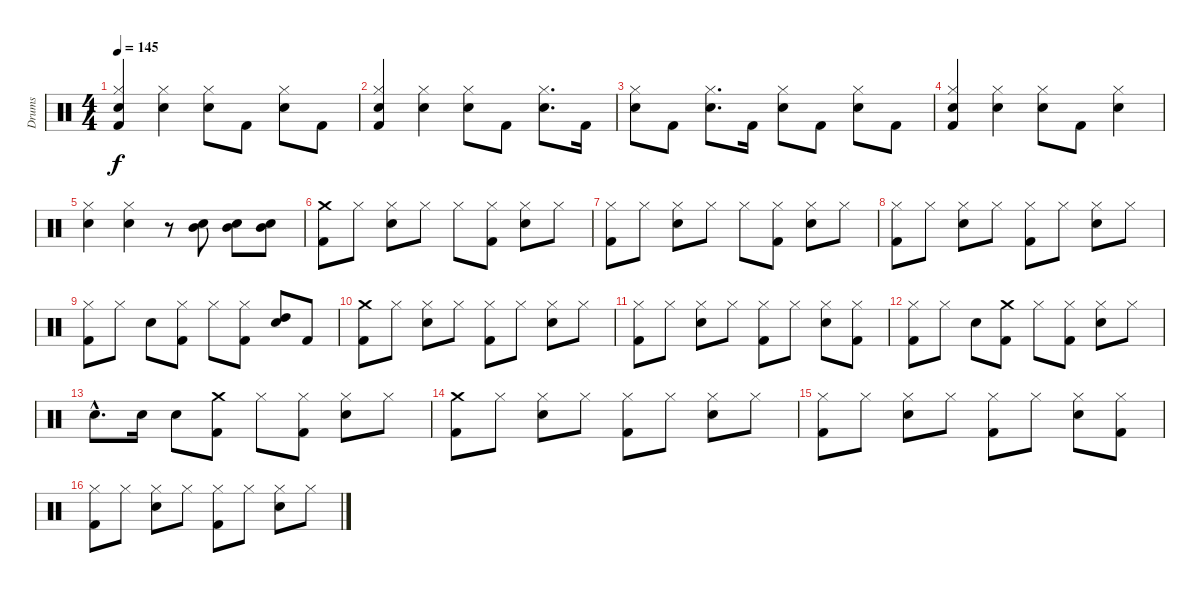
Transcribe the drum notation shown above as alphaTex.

\track ("Drums" "Drums") {instrument percussion}
\staff {score}
\articulation defaults
\ts (4 4)
\tempo 145
\clef neutral
\ks c
("Kick (hit) 2" "Hi-Hat (closed)" "Snare (hit) 2").4{dy f} ("Hi-Hat (closed)" "Snare (hit) 2").4 ("Hi-Hat (closed)" "Snare (hit) 2").8 "Kick (hit) 2".8 ("Hi-Hat (closed)" "Snare (hit) 2").8 "Kick (hit) 2".8 |
("Hi-Hat (closed)" "Snare (hit) 2" "Kick (hit) 2").4 ("Hi-Hat (closed)" "Snare (hit) 2").4 ("Hi-Hat (closed)" "Snare (hit) 2").8 "Kick (hit) 2".8 ("Hi-Hat (closed)" "Snare (hit) 2").8{d} "Kick (hit) 2".16 |
("Hi-Hat (closed)" "Snare (hit) 2").8 "Kick (hit) 2".8 ("Hi-Hat (closed)" "Snare (hit) 2").8{d} "Kick (hit) 2".16 ("Hi-Hat (closed)" "Snare (hit) 2").8 "Kick (hit) 2".8 ("Hi-Hat (closed)" "Snare (hit) 2").8 "Kick (hit) 2".8 |
("Hi-Hat (closed)" "Snare (hit) 2" "Kick (hit) 2").4 ("Hi-Hat (closed)" "Snare (hit) 2").4 ("Hi-Hat (closed)" "Snare (hit) 2").8 "Kick (hit) 2".8 ("Hi-Hat (closed)" "Snare (hit) 2").4 |
("Hi-Hat (closed)" "Snare (hit) 2").4 ("Hi-Hat (closed)" "Snare (hit) 2").4 r.8 ("Mid Tom (hit)" "Snare (hit) 2").8 ("Mid Tom (hit)" "Snare (hit) 2").8 ("Mid Tom (hit)" "Snare (hit) 2").8 |
("Kick (hit) 2" "Crash medium (hit)").8 "Hi-Hat (closed)".8 ("Snare (hit) 2" "Hi-Hat (closed)").8 "Hi-Hat (closed)".8 "Hi-Hat (closed)".8 ("Kick (hit) 2" "Hi-Hat (closed)").8 ("Snare (hit) 2" "Hi-Hat (closed)").8 "Hi-Hat (closed)".8 |
("Kick (hit) 2" "Hi-Hat (closed)").8 "Hi-Hat (closed)".8 ("Snare (hit) 2" "Hi-Hat (closed)").8 "Hi-Hat (closed)".8 "Hi-Hat (closed)".8 ("Kick (hit) 2" "Hi-Hat (closed)").8 ("Snare (hit) 2" "Hi-Hat (closed)").8 "Hi-Hat (closed)".8 |
("Hi-Hat (closed)" "Kick (hit) 2").8 "Hi-Hat (closed)".8 ("Snare (hit) 2" "Hi-Hat (closed)").8 "Hi-Hat (closed)".8 ("Hi-Hat (closed)" "Kick (hit) 2").8 "Hi-Hat (closed)".8 ("Snare (hit) 2" "Hi-Hat (closed)").8 "Hi-Hat (closed)".8 |
("Kick (hit) 2" "Hi-Hat (closed)").8 "Hi-Hat (closed)".8 "Snare (hit) 2".8 ("Kick (hit) 2" "Hi-Hat (closed)").8 "Hi-Hat (closed)".8 ("Kick (hit) 2" "Hi-Hat (closed)").8 ("Snare (hit) 2" "High Tom (hit)").8 "Kick (hit) 2".8 |
("Crash medium (hit)" "Kick (hit) 2").8 "Hi-Hat (closed)".8 ("Snare (hit) 2" "Hi-Hat (closed)").8 "Hi-Hat (closed)".8 ("Hi-Hat (closed)" "Kick (hit) 2").8 "Hi-Hat (closed)".8 ("Snare (hit) 2" "Hi-Hat (closed)").8 "Hi-Hat (closed)".8 |
("Hi-Hat (closed)" "Kick (hit) 2").8 "Hi-Hat (closed)".8 ("Snare (hit) 2" "Hi-Hat (closed)").8 "Hi-Hat (closed)".8 ("Hi-Hat (closed)" "Kick (hit) 2").8 "Hi-Hat (closed)".8 ("Snare (hit) 2" "Hi-Hat (closed)").8 ("Kick (hit) 2" "Hi-Hat (closed)").8 |
("Hi-Hat (closed)" "Kick (hit) 2").8 "Hi-Hat (closed)".8 "Snare (hit) 2".8 ("Kick (hit) 2" "Crash medium (hit)").8 "Hi-Hat (closed)".8 ("Kick (hit) 2" "Hi-Hat (closed)").8 ("Snare (hit) 2" "Hi-Hat (closed)").8 "Hi-Hat (closed)".8 |
"Snare (hit) 2"{hac}.8{d} "Snare (hit) 2".16 "Snare (hit) 2".8 ("Kick (hit) 2" "Crash medium (hit)").8 "Hi-Hat (closed)".8 ("Kick (hit) 2" "Hi-Hat (closed)").8 ("Snare (hit) 2" "Hi-Hat (closed)").8 "Hi-Hat (closed)".8 |
("Crash medium (hit)" "Kick (hit) 2").8 "Hi-Hat (closed)".8 ("Snare (hit) 2" "Hi-Hat (closed)").8 "Hi-Hat (closed)".8 ("Hi-Hat (closed)" "Kick (hit) 2").8 "Hi-Hat (closed)".8 ("Snare (hit) 2" "Hi-Hat (closed)").8 "Hi-Hat (closed)".8 |
("Hi-Hat (closed)" "Kick (hit) 2").8 "Hi-Hat (closed)".8 ("Hi-Hat (closed)" "Snare (hit) 2").8 "Hi-Hat (closed)".8 ("Hi-Hat (closed)" "Kick (hit) 2").8 "Hi-Hat (closed)".8 ("Hi-Hat (closed)" "Snare (hit) 2").8 ("Hi-Hat (closed)" "Kick (hit) 2").8 |
("Hi-Hat (closed)" "Kick (hit) 2").8 "Hi-Hat (closed)".8 ("Hi-Hat (closed)" "Snare (hit) 2").8 "Hi-Hat (closed)".8 ("Hi-Hat (closed)" "Kick (hit) 2").8 "Hi-Hat (closed)".8 ("Hi-Hat (closed)" "Snare (hit) 2").8 "Hi-Hat (closed)".8
